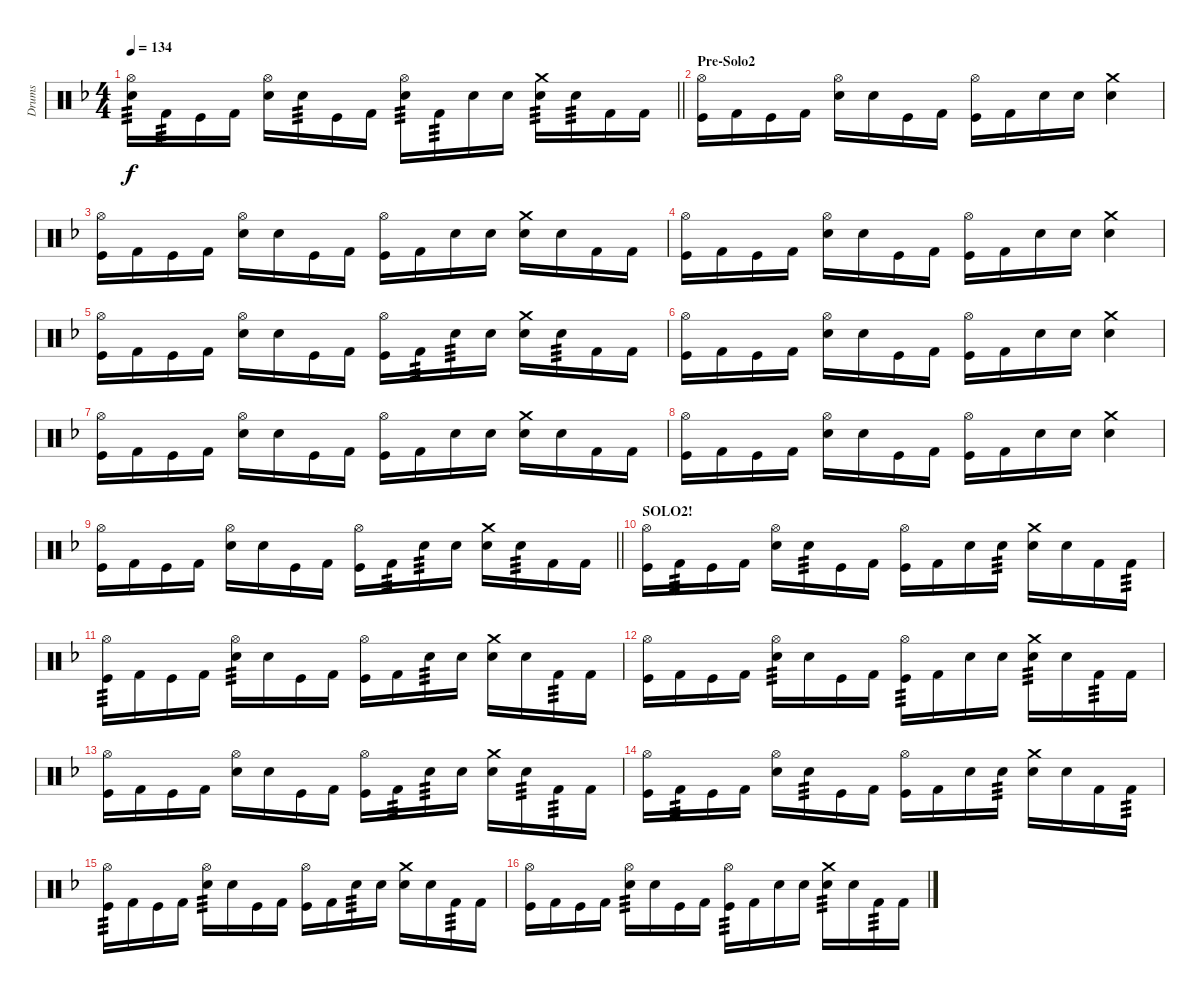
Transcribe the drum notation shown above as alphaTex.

\track ("Drums" "Drums") {instrument percussion}
\staff {score}
\articulation defaults
\ts (4 4)
\tempo 134
\clef neutral
\barLineRight lightlight
\ks f
("Electric Snare (hit)" "Hi-Hat (open)").16{tp 3 dy f} "Kick (hit) 2".16{tp 3} "Kick (hit)".16 "Kick (hit) 2".16 ("Electric Snare (hit)" "Hi-Hat (open)").16 "Electric Snare (hit)".16{tp 3} "Kick (hit)".16 "Kick (hit) 2".16 ("Electric Snare (hit)" "Hi-Hat (open)").16{tp 3} "Kick (hit) 2".16{tp 3} "Electric Snare (hit)".16 "Electric Snare (hit)".16 ("Electric Snare (hit)" "Crash medium (hit)").16{tp 3} "Snare (hit) 2".16{tp 3} "Kick (hit) 2".16 "Kick (hit) 2".16 |
\section ("" "Pre-Solo2")
("Kick (hit)" "Hi-Hat (open)").16 "Kick (hit) 2".16 "Kick (hit)".16 "Kick (hit) 2".16 ("Electric Snare (hit)" "Hi-Hat (open)").16 "Electric Snare (hit)".16 "Kick (hit)".16 "Kick (hit) 2".16 ("Kick (hit)" "Hi-Hat (open)").16 "Kick (hit) 2".16 "Electric Snare (hit)".16 "Electric Snare (hit)".16 ("Snare (hit) 2" "Crash medium (hit)").4 |
("Kick (hit)" "Hi-Hat (open)").16 "Kick (hit) 2".16 "Kick (hit)".16 "Kick (hit) 2".16 ("Electric Snare (hit)" "Hi-Hat (open)").16 "Electric Snare (hit)".16 "Kick (hit)".16 "Kick (hit) 2".16 ("Kick (hit)" "Hi-Hat (open)").16 "Kick (hit) 2".16 "Electric Snare (hit)".16 "Electric Snare (hit)".16 ("Electric Snare (hit)" "Crash medium (hit)").16 "Snare (hit) 2".16 "Kick (hit) 2".16 "Kick (hit) 2".16 |
("Kick (hit)" "Hi-Hat (open)").16 "Kick (hit) 2".16 "Kick (hit)".16 "Kick (hit) 2".16 ("Electric Snare (hit)" "Hi-Hat (open)").16 "Electric Snare (hit)".16 "Kick (hit)".16 "Kick (hit) 2".16 ("Kick (hit)" "Hi-Hat (open)").16 "Kick (hit) 2".16 "Electric Snare (hit)".16 "Electric Snare (hit)".16 ("Snare (hit) 2" "Crash medium (hit)").4 |
("Kick (hit)" "Hi-Hat (open)").16 "Kick (hit) 2".16 "Kick (hit)".16 "Kick (hit) 2".16 ("Electric Snare (hit)" "Hi-Hat (open)").16 "Electric Snare (hit)".16 "Kick (hit)".16 "Kick (hit) 2".16 ("Kick (hit)" "Hi-Hat (open)").16 "Kick (hit) 2".16{tp 3} "Electric Snare (hit)".16{tp 3} "Electric Snare (hit)".16 ("Electric Snare (hit)" "Crash medium (hit)").16 "Snare (hit) 2".16{tp 3} "Kick (hit) 2".16 "Kick (hit) 2".16 |
("Kick (hit)" "Hi-Hat (open)").16 "Kick (hit) 2".16 "Kick (hit)".16 "Kick (hit) 2".16 ("Electric Snare (hit)" "Hi-Hat (open)").16 "Electric Snare (hit)".16 "Kick (hit)".16 "Kick (hit) 2".16 ("Kick (hit)" "Hi-Hat (open)").16 "Kick (hit) 2".16 "Electric Snare (hit)".16 "Electric Snare (hit)".16 ("Snare (hit) 2" "Crash medium (hit)").4 |
("Kick (hit)" "Hi-Hat (open)").16 "Kick (hit) 2".16 "Kick (hit)".16 "Kick (hit) 2".16 ("Electric Snare (hit)" "Hi-Hat (open)").16 "Electric Snare (hit)".16 "Kick (hit)".16 "Kick (hit) 2".16 ("Kick (hit)" "Hi-Hat (open)").16 "Kick (hit) 2".16 "Electric Snare (hit)".16 "Electric Snare (hit)".16 ("Electric Snare (hit)" "Crash medium (hit)").16 "Snare (hit) 2".16 "Kick (hit) 2".16 "Kick (hit) 2".16 |
("Kick (hit)" "Hi-Hat (open)").16 "Kick (hit) 2".16 "Kick (hit)".16 "Kick (hit) 2".16 ("Electric Snare (hit)" "Hi-Hat (open)").16 "Electric Snare (hit)".16 "Kick (hit)".16 "Kick (hit) 2".16 ("Kick (hit)" "Hi-Hat (open)").16 "Kick (hit) 2".16 "Electric Snare (hit)".16 "Electric Snare (hit)".16 ("Snare (hit) 2" "Crash medium (hit)").4 |
\barLineRight lightlight
("Kick (hit)" "Hi-Hat (open)").16 "Kick (hit) 2".16 "Kick (hit)".16 "Kick (hit) 2".16 ("Electric Snare (hit)" "Hi-Hat (open)").16 "Electric Snare (hit)".16 "Kick (hit)".16 "Kick (hit) 2".16 ("Kick (hit)" "Hi-Hat (open)").16 "Kick (hit) 2".16{tp 3} "Electric Snare (hit)".16{tp 3} "Electric Snare (hit)".16 ("Electric Snare (hit)" "Crash medium (hit)").16 "Snare (hit) 2".16{tp 3} "Kick (hit) 2".16 "Kick (hit) 2".16 |
\section ("" "SOLO2!")
("Kick (hit)" "Hi-Hat (open)").16 "Kick (hit) 2".16{tp 3} "Kick (hit)".16 "Kick (hit) 2".16 ("Electric Snare (hit)" "Hi-Hat (open)").16 "Electric Snare (hit)".16{tp 3} "Kick (hit)".16 "Kick (hit) 2".16 ("Kick (hit)" "Hi-Hat (open)").16 "Kick (hit) 2".16 "Electric Snare (hit)".16 "Electric Snare (hit)".16{tp 3} ("Electric Snare (hit)" "Crash medium (hit)").16 "Snare (hit) 2".16 "Kick (hit) 2".16 "Kick (hit) 2".16{tp 3} |
("Kick (hit)" "Hi-Hat (open)").16{tp 3} "Kick (hit) 2".16 "Kick (hit)".16 "Kick (hit) 2".16 ("Electric Snare (hit)" "Hi-Hat (open)").16{tp 3} "Electric Snare (hit)".16 "Kick (hit)".16 "Kick (hit) 2".16 ("Kick (hit)" "Hi-Hat (open)").16 "Kick (hit) 2".16 "Electric Snare (hit)".16{tp 3} "Electric Snare (hit)".16 ("Electric Snare (hit)" "Crash medium (hit)").16 "Snare (hit) 2".16 "Kick (hit) 2".16{tp 3} "Kick (hit) 2".16 |
("Kick (hit)" "Hi-Hat (open)").16 "Kick (hit) 2".16 "Kick (hit)".16 "Kick (hit) 2".16 ("Electric Snare (hit)" "Hi-Hat (open)").16{tp 3} "Electric Snare (hit)".16 "Kick (hit)".16 "Kick (hit) 2".16 ("Kick (hit)" "Hi-Hat (open)").16{tp 3} "Kick (hit) 2".16 "Electric Snare (hit)".16 "Electric Snare (hit)".16 ("Electric Snare (hit)" "Crash medium (hit)").16{tp 3} "Snare (hit) 2".16 "Kick (hit) 2".16{tp 3} "Kick (hit) 2".16 |
("Kick (hit)" "Hi-Hat (open)").16 "Kick (hit) 2".16 "Kick (hit)".16 "Kick (hit) 2".16 ("Electric Snare (hit)" "Hi-Hat (open)").16 "Electric Snare (hit)".16 "Kick (hit)".16 "Kick (hit) 2".16 ("Kick (hit)" "Hi-Hat (open)").16 "Kick (hit) 2".16{tp 3} "Electric Snare (hit)".16{tp 3} "Electric Snare (hit)".16 ("Electric Snare (hit)" "Crash medium (hit)").16 "Snare (hit) 2".16{tp 3} "Kick (hit) 2".16{tp 3} "Kick (hit) 2".16 |
("Kick (hit)" "Hi-Hat (open)").16 "Kick (hit) 2".16{tp 3} "Kick (hit)".16 "Kick (hit) 2".16 ("Electric Snare (hit)" "Hi-Hat (open)").16 "Electric Snare (hit)".16{tp 3} "Kick (hit)".16 "Kick (hit) 2".16 ("Kick (hit)" "Hi-Hat (open)").16 "Kick (hit) 2".16 "Electric Snare (hit)".16 "Electric Snare (hit)".16{tp 3} ("Electric Snare (hit)" "Crash medium (hit)").16 "Snare (hit) 2".16 "Kick (hit) 2".16 "Kick (hit) 2".16{tp 3} |
("Kick (hit)" "Hi-Hat (open)").16{tp 3} "Kick (hit) 2".16 "Kick (hit)".16 "Kick (hit) 2".16 ("Electric Snare (hit)" "Hi-Hat (open)").16{tp 3} "Electric Snare (hit)".16 "Kick (hit)".16 "Kick (hit) 2".16 ("Kick (hit)" "Hi-Hat (open)").16 "Kick (hit) 2".16 "Electric Snare (hit)".16{tp 3} "Electric Snare (hit)".16 ("Electric Snare (hit)" "Crash medium (hit)").16 "Snare (hit) 2".16 "Kick (hit) 2".16{tp 3} "Kick (hit) 2".16 |
("Kick (hit)" "Hi-Hat (open)").16 "Kick (hit) 2".16 "Kick (hit)".16 "Kick (hit) 2".16 ("Electric Snare (hit)" "Hi-Hat (open)").16{tp 3} "Electric Snare (hit)".16 "Kick (hit)".16 "Kick (hit) 2".16 ("Kick (hit)" "Hi-Hat (open)").16{tp 3} "Kick (hit) 2".16 "Electric Snare (hit)".16 "Electric Snare (hit)".16 ("Electric Snare (hit)" "Crash medium (hit)").16{tp 3} "Snare (hit) 2".16 "Kick (hit) 2".16{tp 3} "Kick (hit) 2".16
